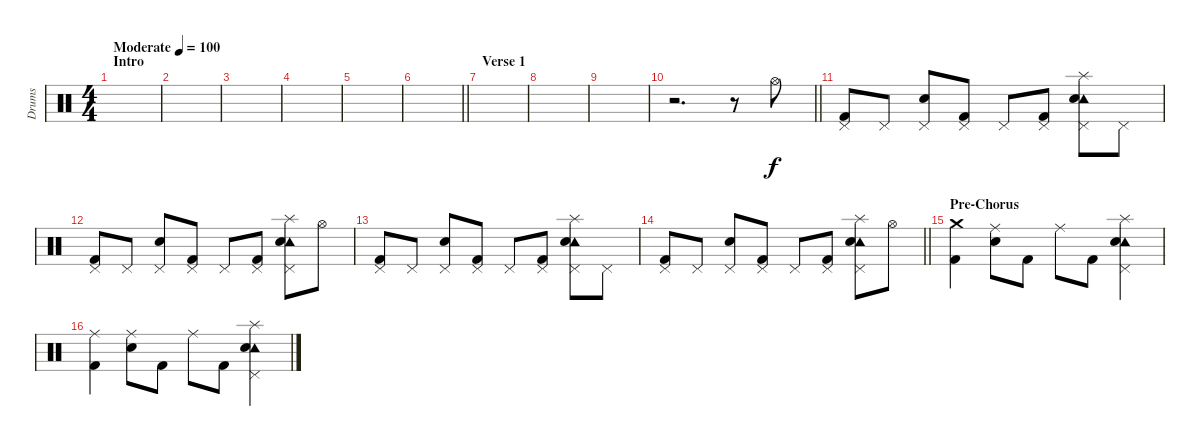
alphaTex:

\track ("Drums" "Drums") {instrument percussion}
\staff {score}
\articulation defaults
\ts (4 4)
\section ("" "Intro")
\tempo (100 "Moderate")
\clef neutral
\ks c
|
|
|
|
|
\barLineRight lightlight
|
\section ("" "Verse 1")
|
|
|
\barLineRight lightlight
r.2{d} r.8 "Hi-Hat (open)".8 |
("Pedal Hi-Hat (hit)" "Kick (hit) 2").8 "Pedal Hi-Hat (hit)".8 ("Pedal Hi-Hat (hit)" "Snare (hit) 2").8 ("Pedal Hi-Hat (hit)" "Kick (hit) 2").8 "Pedal Hi-Hat (hit)".8 ("Pedal Hi-Hat (hit)" "Kick (hit) 2").8 ("Tambourine (hit)" "Pedal Hi-Hat (hit)" "Splash (hit)" "Snare (hit) 2").8 "Pedal Hi-Hat (hit)".8 |
("Pedal Hi-Hat (hit)" "Kick (hit) 2").8 "Pedal Hi-Hat (hit)".8 ("Pedal Hi-Hat (hit)" "Snare (hit) 2").8 ("Pedal Hi-Hat (hit)" "Kick (hit) 2").8 "Pedal Hi-Hat (hit)".8 ("Pedal Hi-Hat (hit)" "Kick (hit) 2").8 ("Tambourine (hit)" "Pedal Hi-Hat (hit)" "Splash (hit)" "Snare (hit) 2").8 "Hi-Hat (open)".8 |
("Pedal Hi-Hat (hit)" "Kick (hit) 2").8 "Pedal Hi-Hat (hit)".8 ("Pedal Hi-Hat (hit)" "Snare (hit) 2").8 ("Pedal Hi-Hat (hit)" "Kick (hit) 2").8 "Pedal Hi-Hat (hit)".8 ("Pedal Hi-Hat (hit)" "Kick (hit) 2").8 ("Tambourine (hit)" "Pedal Hi-Hat (hit)" "Splash (hit)" "Snare (hit) 2").8 "Pedal Hi-Hat (hit)".8 |
\barLineRight lightlight
("Pedal Hi-Hat (hit)" "Kick (hit) 2").8 "Pedal Hi-Hat (hit)".8 ("Pedal Hi-Hat (hit)" "Snare (hit) 2").8 ("Pedal Hi-Hat (hit)" "Kick (hit) 2").8 "Pedal Hi-Hat (hit)".8 ("Pedal Hi-Hat (hit)" "Kick (hit) 2").8 ("Tambourine (hit)" "Pedal Hi-Hat (hit)" "Splash (hit)" "Snare (hit) 2").8 "Hi-Hat (open)".8 |
\section ("" "Pre-Chorus")
("Crash medium (hit)" "Kick (hit) 2").4 ("Ride (middle)" "Snare (hit) 2").8 "Kick (hit) 2".8 "Ride (middle)".8 "Kick (hit) 2".8 ("Tambourine (hit)" "Pedal Hi-Hat (hit)" "Splash (hit)" "Snare (hit) 2").4 |
("Ride (middle)" "Kick (hit) 2").4 ("Ride (middle)" "Snare (hit) 2").8 "Kick (hit) 2".8 "Ride (middle)".8 "Kick (hit) 2".8 ("Tambourine (hit)" "Pedal Hi-Hat (hit)" "Splash (hit)" "Snare (hit) 2").4
